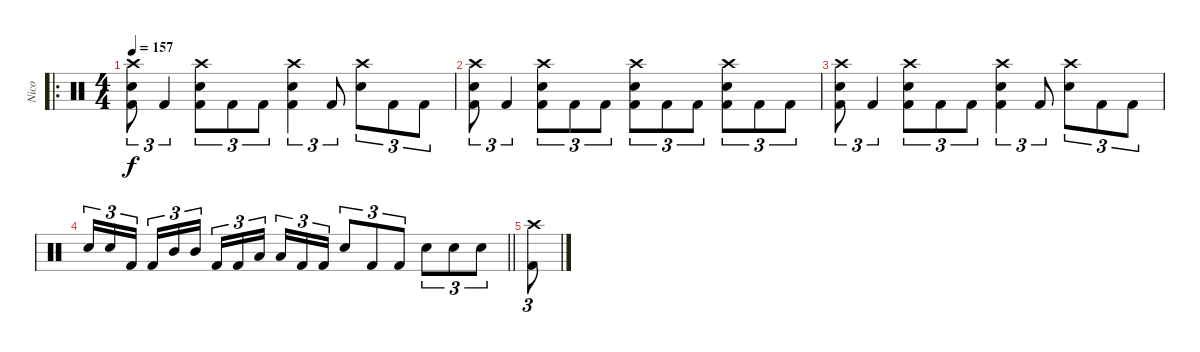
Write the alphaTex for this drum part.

\track ("Nico" "Nico") {instrument percussion}
\staff {score}
\articulation defaults
\ro
\ts (4 4)
\tempo 157
\clef neutral
\ks c
("Crash high (hit)" "Electric Snare (hit)" "Kick (hit) 2").8{tu (3 2) dy f} "Kick (hit) 2".4{tu (3 2)} ("Crash high (hit)" "Electric Snare (hit)" "Kick (hit) 2").8{tu (3 2)} "Kick (hit) 2".8{tu (3 2)} "Kick (hit) 2".8{tu (3 2)} ("Crash high (hit)" "Electric Snare (hit)" "Kick (hit) 2").4{tu (3 2)} "Kick (hit) 2".8{tu (3 2)} ("Crash high (hit)" "Electric Snare (hit)").8{tu (3 2)} "Kick (hit) 2".8{tu (3 2)} "Kick (hit) 2".8{tu (3 2)} |
("Crash high (hit)" "Electric Snare (hit)" "Kick (hit) 2").8{tu (3 2)} "Kick (hit) 2".4{tu (3 2)} ("Crash high (hit)" "Electric Snare (hit)" "Kick (hit) 2").8{tu (3 2)} "Kick (hit) 2".8{tu (3 2)} "Kick (hit) 2".8{tu (3 2)} ("Crash high (hit)" "Electric Snare (hit)" "Kick (hit) 2").8{tu (3 2)} "Kick (hit) 2".8{tu (3 2)} "Kick (hit) 2".8{tu (3 2)} ("Crash high (hit)" "Electric Snare (hit)" "Kick (hit) 2").8{tu (3 2)} "Kick (hit) 2".8{tu (3 2)} "Kick (hit) 2".8{tu (3 2)} |
("Crash high (hit)" "Electric Snare (hit)" "Kick (hit) 2").8{tu (3 2)} "Kick (hit) 2".4{tu (3 2)} ("Crash high (hit)" "Electric Snare (hit)" "Kick (hit) 2").8{tu (3 2)} "Kick (hit) 2".8{tu (3 2)} "Kick (hit) 2".8{tu (3 2)} ("Crash high (hit)" "Electric Snare (hit)" "Kick (hit) 2").4{tu (3 2)} "Kick (hit) 2".8{tu (3 2)} ("Crash high (hit)" "Electric Snare (hit)").8{tu (3 2)} "Kick (hit) 2".8{tu (3 2)} "Kick (hit) 2".8{tu (3 2)} |
\barLineRight lightlight "Electric Snare (hit)".16{tu (3 2)} "Electric Snare (hit)".16{tu (3 2)} "Kick (hit) 2".16{tu (3 2) beam splitsecondary} "Kick (hit) 2".16{tu (3 2)} "Mid Tom (hit)".16{tu (3 2)} "Mid Tom (hit)".16{tu (3 2)} "Kick (hit) 2".16{tu (3 2)} "Kick (hit) 2".16{tu (3 2)} "Low Tom (hit)".16{tu (3 2) beam splitsecondary} "Low Tom (hit)".16{tu (3 2)} "Kick (hit) 2".16{tu (3 2)} "Kick (hit) 2".16{tu (3 2)} "Electric Snare (hit)".8{tu (3 2)} "Kick (hit) 2".8{tu (3 2)} "Kick (hit) 2".8{tu (3 2)} "Electric Snare (hit)".8{tu (3 2)} "Electric Snare (hit)".8{tu (3 2)} "Electric Snare (hit)".8{tu (3 2)}
|
("Crash high (hit)" "Kick (hit) 2").8{tu (3 2)}
